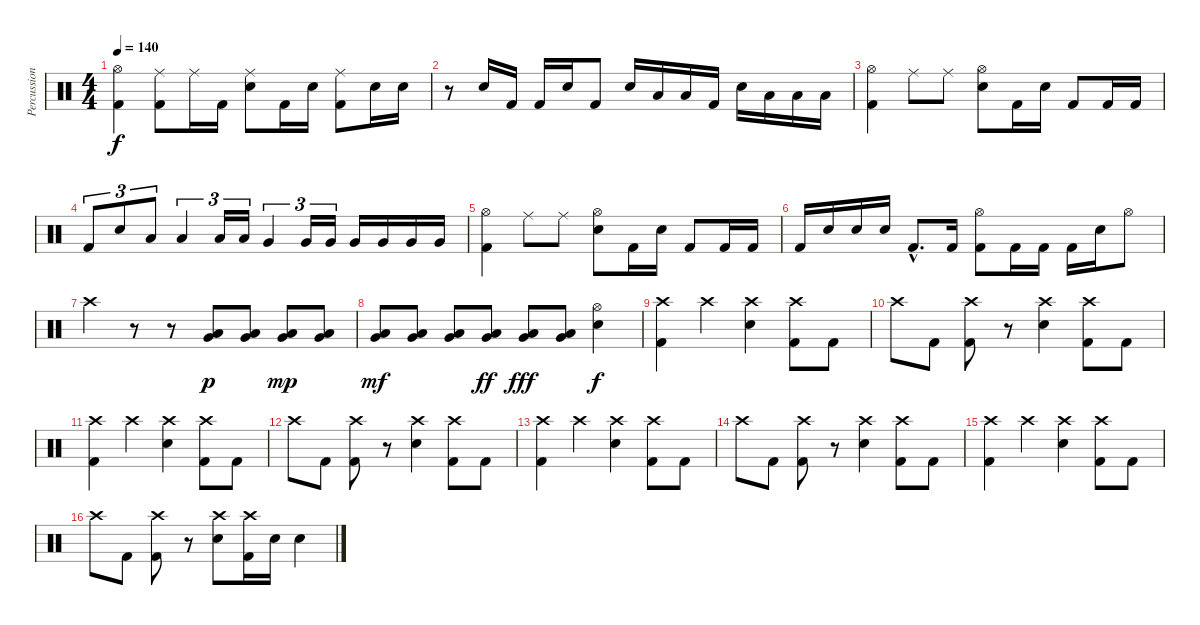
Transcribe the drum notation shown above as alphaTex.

\track ("Percussion" "Percussion") {instrument percussion}
\staff {score}
\articulation defaults
\ts (4 4)
\tempo 140
\clef neutral
\ks c
("Hi-Hat (open)" "Kick (hit) 2").4{dy f} ("Ride (middle)" "Kick (hit) 2").8 "Ride (middle)".16 "Kick (hit) 2".16 ("Ride (middle)" "Electric Snare (hit)").8 "Kick (hit) 2".16 "Electric Snare (hit)".16 ("Ride (middle)" "Kick (hit) 2").8 "Electric Snare (hit)".16 "Electric Snare (hit)".16 |
r.8 "Electric Snare (hit)".16 "Kick (hit) 2".16 "Kick (hit) 2".16 "Electric Snare (hit)".16 "Kick (hit) 2".8 "Electric Snare (hit)".16 "Low Tom (hit)".16 "Low Tom (hit)".16 "Kick (hit) 2".16 "Electric Snare (hit)".16 "Low Tom (hit)".16 "Low Tom (hit)".16 "Low Tom (hit)".16 |
("Hi-Hat (open)" "Kick (hit) 2").4 "Ride (middle)".8 "Ride (middle)".8 ("Hi-Hat (open)" "Electric Snare (hit)").8 "Kick (hit) 2".16 "Electric Snare (hit)".16 "Kick (hit) 2".8 "Kick (hit) 2".16 "Kick (hit) 2".16 |
"Kick (hit) 2".8{tu (3 2)} "Electric Snare (hit)".8{tu (3 2)} "Low Tom (hit)".8{tu (3 2)} "Low Tom (hit)".4{tu (3 2)} "Low Tom (hit)".16{tu (3 2)} "Low Tom (hit)".16{tu (3 2)} "Very Low Tom (hit)".4{tu (3 2)} "Very Low Tom (hit)".16{tu (3 2)} "Very Low Tom (hit)".16{tu (3 2)} "Very Low Tom (hit)".16 "Very Low Tom (hit)".16 "Very Low Tom (hit)".16 "Very Low Tom (hit)".16 |
("Hi-Hat (open)" "Kick (hit) 2").4 "Ride (middle)".8 "Ride (middle)".8 ("Hi-Hat (open)" "Electric Snare (hit)").8 "Kick (hit) 2".16 "Electric Snare (hit)".16 "Kick (hit) 2".8 "Kick (hit) 2".16 "Kick (hit) 2".16 |
"Kick (hit) 2".16 "Electric Snare (hit)".16 "Electric Snare (hit)".16 "Electric Snare (hit)".16 "Kick (hit) 2"{hac}.8{d} "Kick (hit) 2".16 ("Hi-Hat (open)" "Kick (hit) 2").8 "Kick (hit) 2".16 "Kick (hit) 2".16 "Kick (hit) 2".16 "Electric Snare (hit)".16 "Hi-Hat (open)".8 |
"Crash high (hit)".4 r.8 r.8 ("Very Low Tom (hit)" "Low Tom (hit)").8{dy p} ("Very Low Tom (hit)" "Low Tom (hit)").8 ("Very Low Tom (hit)" "Low Tom (hit)").8{dy mp} ("Very Low Tom (hit)" "Low Tom (hit)").8 |
("Very Low Tom (hit)" "Low Tom (hit)").8{dy mf} ("Very Low Tom (hit)" "Low Tom (hit)").8 ("Very Low Tom (hit)" "Low Tom (hit)").8 ("Very Low Tom (hit)" "Low Tom (hit)").8{dy ff} ("Very Low Tom (hit)" "Low Tom (hit)").8{dy fff} ("Very Low Tom (hit)" "Low Tom (hit)").8 ("Hi-Hat (open)" "Electric Snare (hit)").4{dy f} |
("Crash high (hit)" "Kick (hit) 2").4 "Crash high (hit)".4 ("Crash high (hit)" "Electric Snare (hit)").4 ("Crash high (hit)" "Kick (hit) 2").8 "Kick (hit) 2".8 |
"Crash high (hit)".8 "Kick (hit) 2".8 ("Crash high (hit)" "Kick (hit) 2").8 r.8 ("Crash high (hit)" "Electric Snare (hit)").4 ("Crash high (hit)" "Kick (hit) 2").8 "Kick (hit) 2".8 |
("Crash high (hit)" "Kick (hit) 2").4 "Crash high (hit)".4 ("Crash high (hit)" "Electric Snare (hit)").4 ("Crash high (hit)" "Kick (hit) 2").8 "Kick (hit) 2".8 |
"Crash high (hit)".8 "Kick (hit) 2".8 ("Crash high (hit)" "Kick (hit) 2").8 r.8 ("Crash high (hit)" "Electric Snare (hit)").4 ("Crash high (hit)" "Kick (hit) 2").8 "Kick (hit) 2".8 |
("Crash high (hit)" "Kick (hit) 2").4 "Crash high (hit)".4 ("Crash high (hit)" "Electric Snare (hit)").4 ("Crash high (hit)" "Kick (hit) 2").8 "Kick (hit) 2".8 |
"Crash high (hit)".8 "Kick (hit) 2".8 ("Crash high (hit)" "Kick (hit) 2").8 r.8 ("Crash high (hit)" "Electric Snare (hit)").4 ("Crash high (hit)" "Kick (hit) 2").8 "Kick (hit) 2".8 |
("Crash high (hit)" "Kick (hit) 2").4 "Crash high (hit)".4 ("Crash high (hit)" "Electric Snare (hit)").4 ("Crash high (hit)" "Kick (hit) 2").8 "Kick (hit) 2".8 |
"Crash high (hit)".8 "Kick (hit) 2".8 ("Crash high (hit)" "Kick (hit) 2").8 r.8 ("Crash high (hit)" "Electric Snare (hit)").8 ("Crash high (hit)" "Kick (hit) 2").16 "Electric Snare (hit)".16 "Electric Snare (hit)".4
